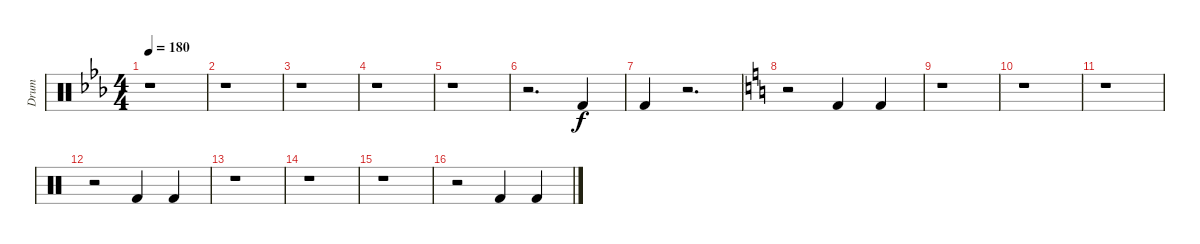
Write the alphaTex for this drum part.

\track ("Drum" "Drum") {instrument percussion}
\staff {score}
\articulation defaults
\ts (4 4)
\tempo 180
\clef neutral
\ks cminor
r.1{dy mf} |
r.1 |
r.1 |
r.1 |
r.1 |
r.2{d} "Kick (hit) 2".4{dy f} |
"Kick (hit) 2".4 r.2{d} |
\ks c
r.2 "Kick (hit) 2".4 "Kick (hit) 2".4 |
r.1 |
r.1 |
r.1 |
r.2 "Kick (hit) 2".4 "Kick (hit) 2".4 |
r.1 |
r.1 |
r.1 |
r.2 "Kick (hit) 2".4 "Kick (hit) 2".4
